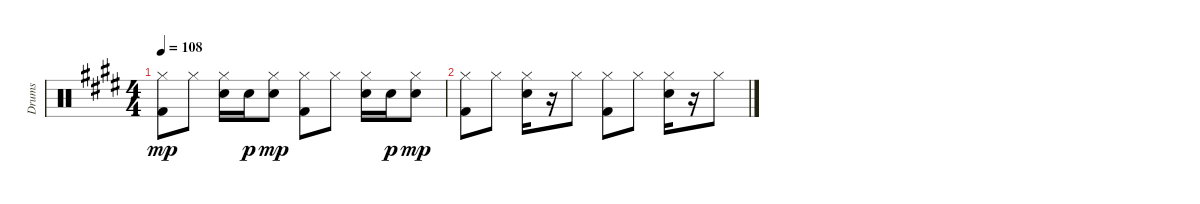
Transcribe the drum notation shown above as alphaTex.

\track ("Drums" "Drums") {instrument percussion bank 7}
\staff {score}
\articulation defaults
\ts (4 4)
\tempo 108
\clef neutral
\ks e
("Hi-Hat (closed)" "Kick (hit) 2").8{dy mp} "Hi-Hat (closed)".8 ("Electric Snare (hit)" "Hi-Hat (closed)").16 "Electric Snare (hit)".16{dy p} ("Electric Snare (hit)" "Hi-Hat (closed)").8{dy mp} ("Hi-Hat (closed)" "Kick (hit) 2").8 "Hi-Hat (closed)".8 ("Electric Snare (hit)" "Hi-Hat (closed)").16 "Electric Snare (hit)".16{dy p} ("Electric Snare (hit)" "Hi-Hat (closed)").8{dy mp} |
("Hi-Hat (closed)" "Kick (hit) 2").8 "Hi-Hat (closed)".8 ("Snare (hit) 2" "Hi-Hat (closed)").16 r.16 "Hi-Hat (closed)".8 ("Hi-Hat (closed)" "Kick (hit) 2").8 "Hi-Hat (closed)".8 ("Snare (hit) 2" "Hi-Hat (closed)").16 r.16 "Hi-Hat (closed)".8
